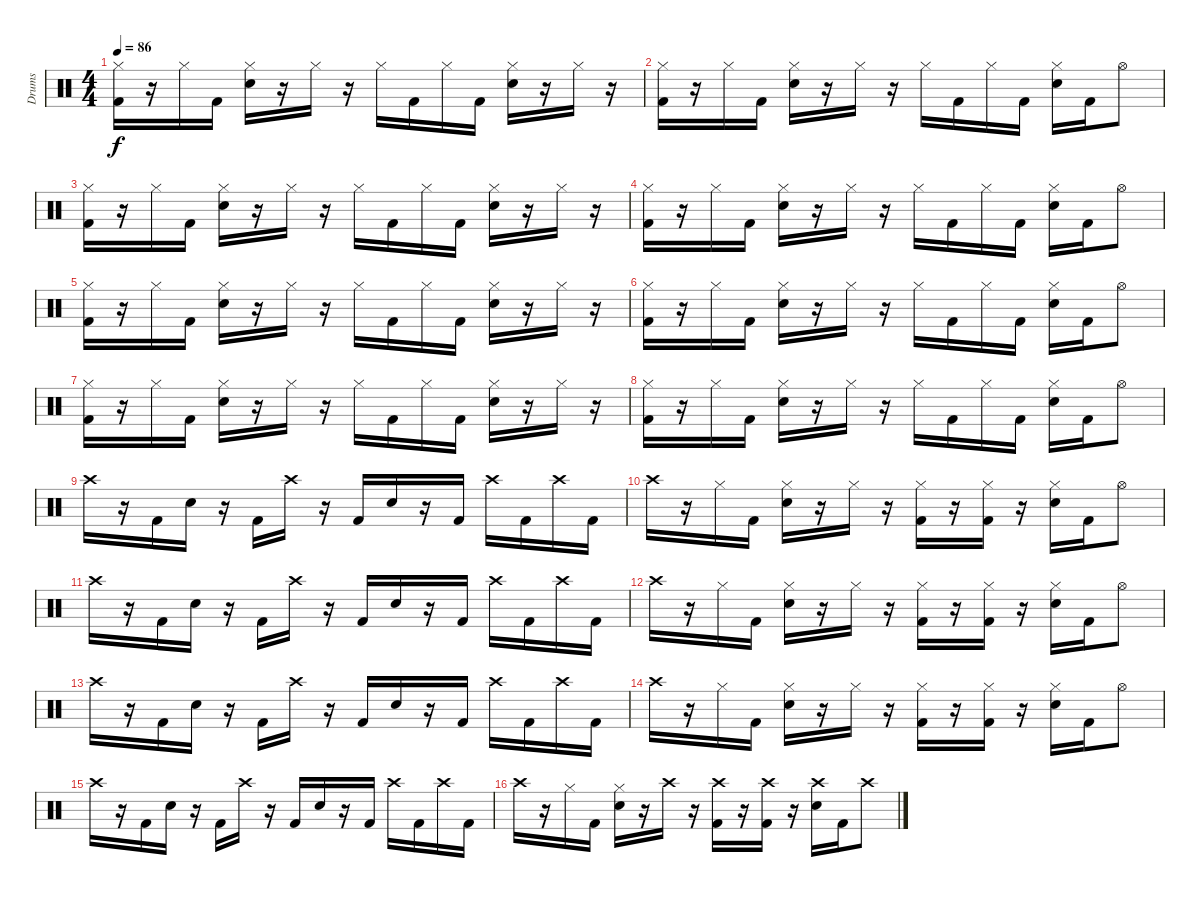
\track ("Drums" "Drums") {instrument percussion}
\staff {score}
\articulation defaults
\ts (4 4)
\tempo 86
\clef neutral
\ks c
("Hi-Hat (closed)" "Kick (hit) 2").16{dy f} r.16 "Hi-Hat (closed)".16 "Kick (hit) 2".16 ("Hi-Hat (closed)" "Snare (hit) 2").16 r.16 "Hi-Hat (closed)".16 r.16 "Hi-Hat (closed)".16 "Kick (hit) 2".16 "Hi-Hat (closed)".16 "Kick (hit) 2".16 ("Hi-Hat (closed)" "Snare (hit) 2").16 r.16 "Hi-Hat (closed)".16 r.16 |
("Hi-Hat (closed)" "Kick (hit) 2").16 r.16 "Hi-Hat (closed)".16 "Kick (hit) 2".16 ("Hi-Hat (closed)" "Snare (hit) 2").16 r.16 "Hi-Hat (closed)".16 r.16 "Hi-Hat (closed)".16 "Kick (hit) 2".16 "Hi-Hat (closed)".16 "Kick (hit) 2".16 ("Hi-Hat (closed)" "Snare (hit) 2").16 "Kick (hit) 2".16 "Hi-Hat (open)".8 |
("Hi-Hat (closed)" "Kick (hit) 2").16 r.16 "Hi-Hat (closed)".16 "Kick (hit) 2".16 ("Hi-Hat (closed)" "Snare (hit) 2").16 r.16 "Hi-Hat (closed)".16 r.16 "Hi-Hat (closed)".16 "Kick (hit) 2".16 "Hi-Hat (closed)".16 "Kick (hit) 2".16 ("Hi-Hat (closed)" "Snare (hit) 2").16 r.16 "Hi-Hat (closed)".16 r.16 |
("Hi-Hat (closed)" "Kick (hit) 2").16 r.16 "Hi-Hat (closed)".16 "Kick (hit) 2".16 ("Hi-Hat (closed)" "Snare (hit) 2").16 r.16 "Hi-Hat (closed)".16 r.16 "Hi-Hat (closed)".16 "Kick (hit) 2".16 "Hi-Hat (closed)".16 "Kick (hit) 2".16 ("Hi-Hat (closed)" "Snare (hit) 2").16 "Kick (hit) 2".16 "Hi-Hat (open)".8 |
("Hi-Hat (closed)" "Kick (hit) 2").16 r.16 "Hi-Hat (closed)".16 "Kick (hit) 2".16 ("Hi-Hat (closed)" "Snare (hit) 2").16 r.16 "Hi-Hat (closed)".16 r.16 "Hi-Hat (closed)".16 "Kick (hit) 2".16 "Hi-Hat (closed)".16 "Kick (hit) 2".16 ("Hi-Hat (closed)" "Snare (hit) 2").16 r.16 "Hi-Hat (closed)".16 r.16 |
("Hi-Hat (closed)" "Kick (hit) 2").16 r.16 "Hi-Hat (closed)".16 "Kick (hit) 2".16 ("Hi-Hat (closed)" "Snare (hit) 2").16 r.16 "Hi-Hat (closed)".16 r.16 "Hi-Hat (closed)".16 "Kick (hit) 2".16 "Hi-Hat (closed)".16 "Kick (hit) 2".16 ("Hi-Hat (closed)" "Snare (hit) 2").16 "Kick (hit) 2".16 "Hi-Hat (open)".8 |
("Hi-Hat (closed)" "Kick (hit) 2").16 r.16 "Hi-Hat (closed)".16 "Kick (hit) 2".16 ("Hi-Hat (closed)" "Snare (hit) 2").16 r.16 "Hi-Hat (closed)".16 r.16 "Hi-Hat (closed)".16 "Kick (hit) 2".16 "Hi-Hat (closed)".16 "Kick (hit) 2".16 ("Hi-Hat (closed)" "Snare (hit) 2").16 r.16 "Hi-Hat (closed)".16 r.16 |
("Hi-Hat (closed)" "Kick (hit) 2").16 r.16 "Hi-Hat (closed)".16 "Kick (hit) 2".16 ("Hi-Hat (closed)" "Snare (hit) 2").16 r.16 "Hi-Hat (closed)".16 r.16 "Hi-Hat (closed)".16 "Kick (hit) 2".16 "Hi-Hat (closed)".16 "Kick (hit) 2".16 ("Hi-Hat (closed)" "Snare (hit) 2").16 "Kick (hit) 2".16 "Hi-Hat (open)".8 |
"Crash high (hit)".16 r.16 "Kick (hit) 2".16 "Snare (hit) 2".16 r.16 "Kick (hit) 2".16 "Crash high (hit)".16 r.16 "Kick (hit) 2".16 "Snare (hit) 2".16 r.16 "Kick (hit) 2".16 "Crash high (hit)".16 "Kick (hit) 2".16 "Crash high (hit)".16 "Kick (hit) 2".16 |
"Crash high (hit)".16 r.16 "Hi-Hat (closed)".16 "Kick (hit) 2".16 ("Hi-Hat (closed)" "Snare (hit) 2").16 r.16 "Hi-Hat (closed)".16 r.16 ("Hi-Hat (closed)" "Kick (hit) 2").16 r.16 ("Hi-Hat (closed)" "Kick (hit) 2").16 r.16 ("Hi-Hat (closed)" "Snare (hit) 2").16 "Kick (hit) 2".16 "Hi-Hat (open)".8 |
"Crash high (hit)".16 r.16 "Kick (hit) 2".16 "Snare (hit) 2".16 r.16 "Kick (hit) 2".16 "Crash high (hit)".16 r.16 "Kick (hit) 2".16 "Snare (hit) 2".16 r.16 "Kick (hit) 2".16 "Crash high (hit)".16 "Kick (hit) 2".16 "Crash high (hit)".16 "Kick (hit) 2".16 |
"Crash high (hit)".16 r.16 "Hi-Hat (closed)".16 "Kick (hit) 2".16 ("Hi-Hat (closed)" "Snare (hit) 2").16 r.16 "Hi-Hat (closed)".16 r.16 ("Hi-Hat (closed)" "Kick (hit) 2").16 r.16 ("Hi-Hat (closed)" "Kick (hit) 2").16 r.16 ("Hi-Hat (closed)" "Snare (hit) 2").16 "Kick (hit) 2".16 "Hi-Hat (open)".8 |
"Crash high (hit)".16 r.16 "Kick (hit) 2".16 "Snare (hit) 2".16 r.16 "Kick (hit) 2".16 "Crash high (hit)".16 r.16 "Kick (hit) 2".16 "Snare (hit) 2".16 r.16 "Kick (hit) 2".16 "Crash high (hit)".16 "Kick (hit) 2".16 "Crash high (hit)".16 "Kick (hit) 2".16 |
"Crash high (hit)".16 r.16 "Hi-Hat (closed)".16 "Kick (hit) 2".16 ("Hi-Hat (closed)" "Snare (hit) 2").16 r.16 "Hi-Hat (closed)".16 r.16 ("Hi-Hat (closed)" "Kick (hit) 2").16 r.16 ("Hi-Hat (closed)" "Kick (hit) 2").16 r.16 ("Hi-Hat (closed)" "Snare (hit) 2").16 "Kick (hit) 2".16 "Hi-Hat (open)".8 |
"Crash high (hit)".16 r.16 "Kick (hit) 2".16 "Snare (hit) 2".16 r.16 "Kick (hit) 2".16 "Crash high (hit)".16 r.16 "Kick (hit) 2".16 "Snare (hit) 2".16 r.16 "Kick (hit) 2".16 "Crash high (hit)".16 "Kick (hit) 2".16 "Crash high (hit)".16 "Kick (hit) 2".16 |
"Crash high (hit)".16 r.16 "Hi-Hat (closed)".16 "Kick (hit) 2".16 ("Hi-Hat (closed)" "Snare (hit) 2").16 r.16 "Crash high (hit)".16 r.16 ("Crash high (hit)" "Kick (hit) 2").16 r.16 ("Crash high (hit)" "Kick (hit) 2").16 r.16 ("Crash high (hit)" "Snare (hit) 2").16 "Kick (hit) 2".16 "Crash high (hit)".8
